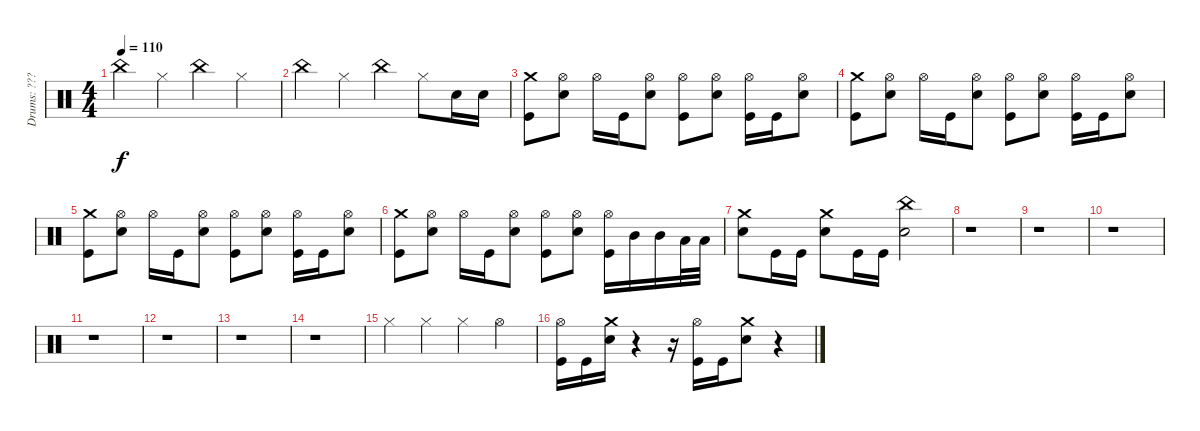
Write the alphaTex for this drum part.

\track ("Drums: ???" "Drums: ???") {instrument percussion}
\staff {score}
\articulation defaults
\ts (4 4)
\tempo 110
\clef neutral
\ks c "China (hit)".4{dy f} "Hi-Hat (closed)".4 "China (hit)".4 "Hi-Hat (closed)".4
|
"China (hit)".4 "Hi-Hat (closed)".4 "China (hit)".4 "Hi-Hat (closed)".8 "Electric Snare (hit)".16 "Electric Snare (hit)".16 |
("Crash medium (hit)" "Kick (hit)").8 ("Hi-Hat (open)" "Electric Snare (hit)").8 "Hi-Hat (open)".16 "Kick (hit)".16 ("Hi-Hat (open)" "Electric Snare (hit)").8 ("Hi-Hat (open)" "Kick (hit)").8 ("Hi-Hat (open)" "Electric Snare (hit)").8 ("Hi-Hat (open)" "Kick (hit)").16 "Kick (hit)".16 ("Hi-Hat (open)" "Electric Snare (hit)").8 |
("Crash medium (hit)" "Kick (hit)").8 ("Hi-Hat (open)" "Electric Snare (hit)").8 "Hi-Hat (open)".16 "Kick (hit)".16 ("Hi-Hat (open)" "Electric Snare (hit)").8 ("Hi-Hat (open)" "Kick (hit)").8 ("Hi-Hat (open)" "Electric Snare (hit)").8 ("Hi-Hat (open)" "Kick (hit)").16 "Kick (hit)".16 ("Hi-Hat (open)" "Electric Snare (hit)").8 |
("Crash medium (hit)" "Kick (hit)").8 ("Hi-Hat (open)" "Electric Snare (hit)").8 "Hi-Hat (open)".16 "Kick (hit)".16 ("Hi-Hat (open)" "Electric Snare (hit)").8 ("Hi-Hat (open)" "Kick (hit)").8 ("Hi-Hat (open)" "Electric Snare (hit)").8 ("Hi-Hat (open)" "Kick (hit)").16 "Kick (hit)".16 ("Hi-Hat (open)" "Electric Snare (hit)").8 |
("Crash medium (hit)" "Kick (hit)").8 ("Hi-Hat (open)" "Electric Snare (hit)").8 "Hi-Hat (open)".16 "Kick (hit)".16 ("Hi-Hat (open)" "Electric Snare (hit)").8 ("Hi-Hat (open)" "Kick (hit)").8 ("Hi-Hat (open)" "Electric Snare (hit)").8 ("Hi-Hat (open)" "Kick (hit)").16 "Mid Tom (hit)".16 "Mid Tom (hit)".16 "Low Tom (hit)".32 "Low Tom (hit)".32 |
("Electric Snare (hit)" "Crash medium (hit)").8 "Kick (hit)".16 "Kick (hit)".16 ("Electric Snare (hit)" "Crash medium (hit)").8 "Kick (hit)".16 "Kick (hit)".16 ("Electric Snare (hit)" "China (hit)").2 |
r.1 |
r.1 |
r.1 |
r.1 |
r.1 |
r.1 |
r.1 |
"Hi-Hat (closed)".4 "Hi-Hat (closed)".4 "Hi-Hat (closed)".4 "Hi-Hat (open)".4 |
("Hi-Hat (open)" "Kick (hit)").16 "Kick (hit)".16 ("Electric Snare (hit)" "Crash medium (hit)").16 r.4 r.16 ("Hi-Hat (open)" "Kick (hit)").16 "Kick (hit)".16 ("Crash medium (hit)" "Electric Snare (hit)").8 r.4
